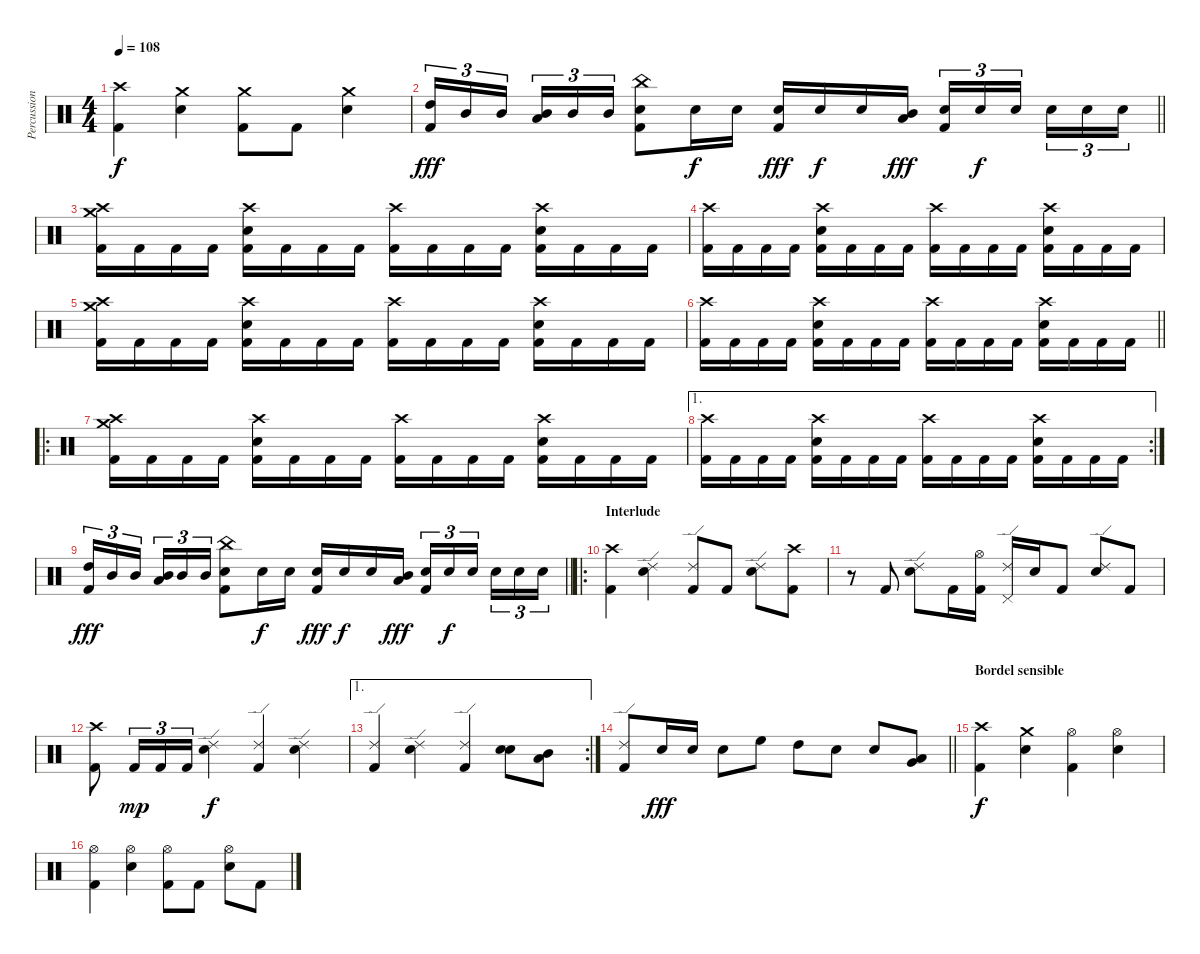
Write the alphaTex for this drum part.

\track ("Percussions" "Percussion") {instrument percussion}
\staff {score}
\articulation defaults
\ts (4 4)
\tempo 108
\clef neutral
\ks c
("Crash high (hit)" "Kick (hit) 2").4{dy f} ("Crash medium (hit)" "Electric Snare (hit)").4 ("Crash medium (hit)" "Kick (hit) 2").8 "Kick (hit) 2".8 ("Crash medium (hit)" "Electric Snare (hit)").4 |
\barLineRight lightlight
("High Tom (hit)" "Kick (hit) 2").16{tu (3 2) dy fff} "Mid Tom (hit)".16{tu (3 2)} "Mid Tom (hit)".16{tu (3 2) beam splitsecondary} ("Low Tom (hit)" "Mid Tom (hit)").16{tu (3 2)} "Mid Tom (hit)".16{tu (3 2)} "Mid Tom (hit)".16{tu (3 2)} ("China (hit)" "Electric Snare (hit)" "Kick (hit) 2").8 "Electric Snare (hit)".16{dy f} "Electric Snare (hit)".16 ("Electric Snare (hit)" "Kick (hit) 2").16{dy fff} "Electric Snare (hit)".16{dy f} "Electric Snare (hit)".16 ("Mid Tom (hit)" "Low Tom (hit)").16{dy fff} ("Electric Snare (hit)" "Kick (hit) 2").16{tu (3 2)} "Electric Snare (hit)".16{tu (3 2) dy f} "Electric Snare (hit)".16{tu (3 2) beam splitsecondary} "Electric Snare (hit)".16{tu (3 2)} "Electric Snare (hit)".16{tu (3 2)} "Electric Snare (hit)".16{tu (3 2)} |
\section ("" "")
("Crash high (hit)" "Crash medium (hit)" "Kick (hit) 2").16 "Kick (hit) 2".16 "Kick (hit) 2".16 "Kick (hit) 2".16 ("Crash high (hit)" "Electric Snare (hit)" "Kick (hit) 2").16 "Kick (hit) 2".16 "Kick (hit) 2".16 "Kick (hit) 2".16 ("Crash high (hit)" "Kick (hit) 2").16 "Kick (hit) 2".16 "Kick (hit) 2".16 "Kick (hit) 2".16 ("Crash high (hit)" "Electric Snare (hit)" "Kick (hit) 2").16 "Kick (hit) 2".16 "Kick (hit) 2".16 "Kick (hit) 2".16 |
("Crash high (hit)" "Kick (hit) 2").16 "Kick (hit) 2".16 "Kick (hit) 2".16 "Kick (hit) 2".16 ("Crash high (hit)" "Electric Snare (hit)" "Kick (hit) 2").16 "Kick (hit) 2".16 "Kick (hit) 2".16 "Kick (hit) 2".16 ("Crash high (hit)" "Kick (hit) 2").16 "Kick (hit) 2".16 "Kick (hit) 2".16 "Kick (hit) 2".16 ("Crash high (hit)" "Electric Snare (hit)" "Kick (hit) 2").16 "Kick (hit) 2".16 "Kick (hit) 2".16 "Kick (hit) 2".16 |
("Crash high (hit)" "Crash medium (hit)" "Kick (hit) 2").16 "Kick (hit) 2".16 "Kick (hit) 2".16 "Kick (hit) 2".16 ("Crash high (hit)" "Electric Snare (hit)" "Kick (hit) 2").16 "Kick (hit) 2".16 "Kick (hit) 2".16 "Kick (hit) 2".16 ("Crash high (hit)" "Kick (hit) 2").16 "Kick (hit) 2".16 "Kick (hit) 2".16 "Kick (hit) 2".16 ("Crash high (hit)" "Electric Snare (hit)" "Kick (hit) 2").16 "Kick (hit) 2".16 "Kick (hit) 2".16 "Kick (hit) 2".16 |
\barLineRight lightlight
("Crash high (hit)" "Kick (hit) 2").16 "Kick (hit) 2".16 "Kick (hit) 2".16 "Kick (hit) 2".16 ("Crash high (hit)" "Electric Snare (hit)" "Kick (hit) 2").16 "Kick (hit) 2".16 "Kick (hit) 2".16 "Kick (hit) 2".16 ("Crash high (hit)" "Kick (hit) 2").16 "Kick (hit) 2".16 "Kick (hit) 2".16 "Kick (hit) 2".16 ("Crash high (hit)" "Electric Snare (hit)" "Kick (hit) 2").16 "Kick (hit) 2".16 "Kick (hit) 2".16 "Kick (hit) 2".16 |
\ro
("Crash high (hit)" "Crash medium (hit)" "Kick (hit) 2").16 "Kick (hit) 2".16 "Kick (hit) 2".16 "Kick (hit) 2".16 ("Crash high (hit)" "Electric Snare (hit)" "Kick (hit) 2").16 "Kick (hit) 2".16 "Kick (hit) 2".16 "Kick (hit) 2".16 ("Crash high (hit)" "Kick (hit) 2").16 "Kick (hit) 2".16 "Kick (hit) 2".16 "Kick (hit) 2".16 ("Crash high (hit)" "Electric Snare (hit)" "Kick (hit) 2").16 "Kick (hit) 2".16 "Kick (hit) 2".16 "Kick (hit) 2".16 |
\ae 1
\rc 2
("Crash high (hit)" "Kick (hit) 2").16 "Kick (hit) 2".16 "Kick (hit) 2".16 "Kick (hit) 2".16 ("Crash high (hit)" "Electric Snare (hit)" "Kick (hit) 2").16 "Kick (hit) 2".16 "Kick (hit) 2".16 "Kick (hit) 2".16 ("Crash high (hit)" "Kick (hit) 2").16 "Kick (hit) 2".16 "Kick (hit) 2".16 "Kick (hit) 2".16 ("Crash high (hit)" "Electric Snare (hit)" "Kick (hit) 2").16 "Kick (hit) 2".16 "Kick (hit) 2".16 "Kick (hit) 2".16 |
\barLineRight lightlight
("High Tom (hit)" "Kick (hit) 2").16{tu (3 2) dy fff} "Mid Tom (hit)".16{tu (3 2)} "Mid Tom (hit)".16{tu (3 2) beam splitsecondary} ("Low Tom (hit)" "Mid Tom (hit)").16{tu (3 2)} "Mid Tom (hit)".16{tu (3 2)} "Mid Tom (hit)".16{tu (3 2)} ("China (hit)" "Electric Snare (hit)" "Kick (hit) 2").8 "Electric Snare (hit)".16{dy f} "Electric Snare (hit)".16 ("Electric Snare (hit)" "Kick (hit) 2").16{dy fff} "Electric Snare (hit)".16{dy f} "Electric Snare (hit)".16 ("Mid Tom (hit)" "Low Tom (hit)").16{dy fff} ("Electric Snare (hit)" "Kick (hit) 2").16{tu (3 2)} "Electric Snare (hit)".16{tu (3 2) dy f} "Electric Snare (hit)".16{tu (3 2) beam splitsecondary} "Electric Snare (hit)".16{tu (3 2)} "Electric Snare (hit)".16{tu (3 2)} "Electric Snare (hit)".16{tu (3 2)} |
\ro
\section ("" "Interlude")
("Crash high (hit)" "Kick (hit) 2").4 ("Ride (edge) 2" "Electric Snare (hit)").4 ("Ride (edge) 2" "Kick (hit) 2").8 "Kick (hit) 2".8 ("Ride (edge) 2" "Electric Snare (hit)").8 ("Crash high (hit)" "Kick (hit) 2").8 |
r.8 "Kick (hit) 2".8 ("Ride (edge) 2" "Electric Snare (hit)").8 "Kick (hit) 2".16 ("Hi-Hat (open)" "Kick (hit) 2").16 ("Ride (edge) 2" "Pedal Hi-Hat (hit)").16 "Electric Snare (hit)".16 "Kick (hit) 2".8 ("Ride (edge) 2" "Electric Snare (hit)").8 "Kick (hit) 2".8 |
("Crash high (hit)" "Kick (hit) 2").8 "Kick (hit) 2".16{tu (3 2) dy mp} "Kick (hit) 2".16{tu (3 2)} "Kick (hit) 2".16{tu (3 2)} ("Ride (edge) 2" "Electric Snare (hit)").4{dy f} ("Ride (edge) 2" "Kick (hit) 2").4 ("Ride (edge) 2" "Electric Snare (hit)").4 |
\ae 1
\rc 2
("Ride (edge) 2" "Kick (hit) 2").4 ("Ride (edge) 2" "Electric Snare (hit)").4 ("Ride (edge) 2" "Kick (hit) 2").4 ("Electric Snare (hit)" "Electric Snare (hit)").8{bd 120} ("Low Tom (hit)" "Mid Tom (hit)").8 |
\barLineRight lightlight
("Ride (edge) 2" "Kick (hit) 2").8 "Electric Snare (hit)".16{dy fff} "Electric Snare (hit)".16 "Electric Snare (hit)".8 "High Floor Tom (hit)".8 "High Tom (hit)".8 "Electric Snare (hit)".8 "Electric Snare (hit)".8 ("Low Tom (hit)" "Very Low Tom (hit)").8 |
\section ("" "Bordel sensible")
("Crash high (hit)" "Kick (hit) 2").4{dy f} ("Crash medium (hit)" "Electric Snare (hit)").4 ("Hi-Hat (open)" "Kick (hit) 2").4 ("Hi-Hat (open)" "Electric Snare (hit)").4 |
("Hi-Hat (open)" "Kick (hit) 2").4 ("Hi-Hat (open)" "Electric Snare (hit)").4 ("Hi-Hat (open)" "Kick (hit) 2").8 "Kick (hit) 2".8 ("Hi-Hat (open)" "Electric Snare (hit)").8 "Kick (hit) 2".8
